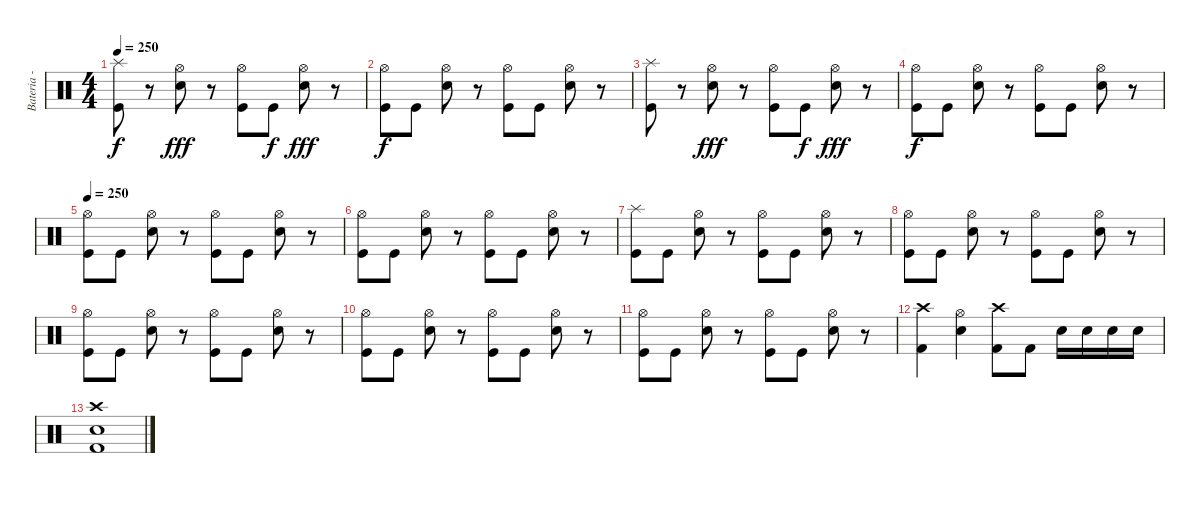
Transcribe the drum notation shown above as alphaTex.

\track ("Bateria - Japinha" "Bateria - ") {instrument percussion}
\staff {score}
\articulation defaults
\ts (4 4)
\tempo 250
\clef neutral
\ks c
("Kick (hit)" "Splash (hit)").8{dy f} r.8 ("Snare (hit) 2" "Hi-Hat (open)").8{dy fff} r.8 ("Kick (hit)" "Hi-Hat (open)").8 "Kick (hit)".8{dy f} ("Snare (hit) 2" "Hi-Hat (open)").8{dy fff} r.8 |
("Kick (hit)" "Hi-Hat (open)").8{dy f} "Kick (hit)".8 ("Snare (hit) 2" "Hi-Hat (open)").8 r.8 ("Kick (hit)" "Hi-Hat (open)").8 "Kick (hit)".8 ("Snare (hit) 2" "Hi-Hat (open)").8 r.8 |
("Kick (hit)" "Splash (hit)").8 r.8 ("Snare (hit) 2" "Hi-Hat (open)").8{dy fff} r.8 ("Kick (hit)" "Hi-Hat (open)").8 "Kick (hit)".8{dy f} ("Snare (hit) 2" "Hi-Hat (open)").8{dy fff} r.8 |
("Kick (hit)" "Hi-Hat (open)").8{dy f} "Kick (hit)".8 ("Snare (hit) 2" "Hi-Hat (open)").8 r.8 ("Kick (hit)" "Hi-Hat (open)").8 "Kick (hit)".8 ("Snare (hit) 2" "Hi-Hat (open)").8 r.8 |
\tempo 250
("Kick (hit)" "Hi-Hat (open)").8 "Kick (hit)".8 ("Snare (hit) 2" "Hi-Hat (open)").8 r.8 ("Kick (hit)" "Hi-Hat (open)").8 "Kick (hit)".8 ("Snare (hit) 2" "Hi-Hat (open)").8 r.8 |
("Kick (hit)" "Hi-Hat (open)").8 "Kick (hit)".8 ("Snare (hit) 2" "Hi-Hat (open)").8 r.8 ("Kick (hit)" "Hi-Hat (open)").8 "Kick (hit)".8 ("Snare (hit) 2" "Hi-Hat (open)").8 r.8 |
("Kick (hit)" "Splash (hit)").8 "Kick (hit)".8 ("Snare (hit) 2" "Hi-Hat (open)").8 r.8 ("Kick (hit)" "Hi-Hat (open)").8 "Kick (hit)".8 ("Snare (hit) 2" "Hi-Hat (open)").8 r.8 |
("Kick (hit)" "Hi-Hat (open)").8 "Kick (hit)".8 ("Snare (hit) 2" "Hi-Hat (open)").8 r.8 ("Kick (hit)" "Hi-Hat (open)").8 "Kick (hit)".8 ("Snare (hit) 2" "Hi-Hat (open)").8 r.8 |
("Kick (hit)" "Hi-Hat (open)").8 "Kick (hit)".8 ("Snare (hit) 2" "Hi-Hat (open)").8 r.8 ("Kick (hit)" "Hi-Hat (open)").8 "Kick (hit)".8 ("Snare (hit) 2" "Hi-Hat (open)").8 r.8 |
("Kick (hit)" "Hi-Hat (open)").8 "Kick (hit)".8 ("Snare (hit) 2" "Hi-Hat (open)").8 r.8 ("Kick (hit)" "Hi-Hat (open)").8 "Kick (hit)".8 ("Snare (hit) 2" "Hi-Hat (open)").8 r.8 |
("Kick (hit)" "Hi-Hat (open)").8 "Kick (hit)".8 ("Snare (hit) 2" "Hi-Hat (open)").8 r.8 ("Kick (hit)" "Hi-Hat (open)").8 "Kick (hit)".8 ("Snare (hit) 2" "Hi-Hat (open)").8 r.8 |
("Kick (hit) 2" "Crash high (hit)").4 ("Snare (hit) 2" "Hi-Hat (open)").4 ("Kick (hit) 2" "Crash high (hit)").8 "Kick (hit) 2".8 "Snare (hit) 2".16 "Snare (hit) 2".16 "Snare (hit) 2".16 "Snare (hit) 2".16 |
("Snare (hit) 2" "Crash high (hit)" "Kick (hit) 2").1
